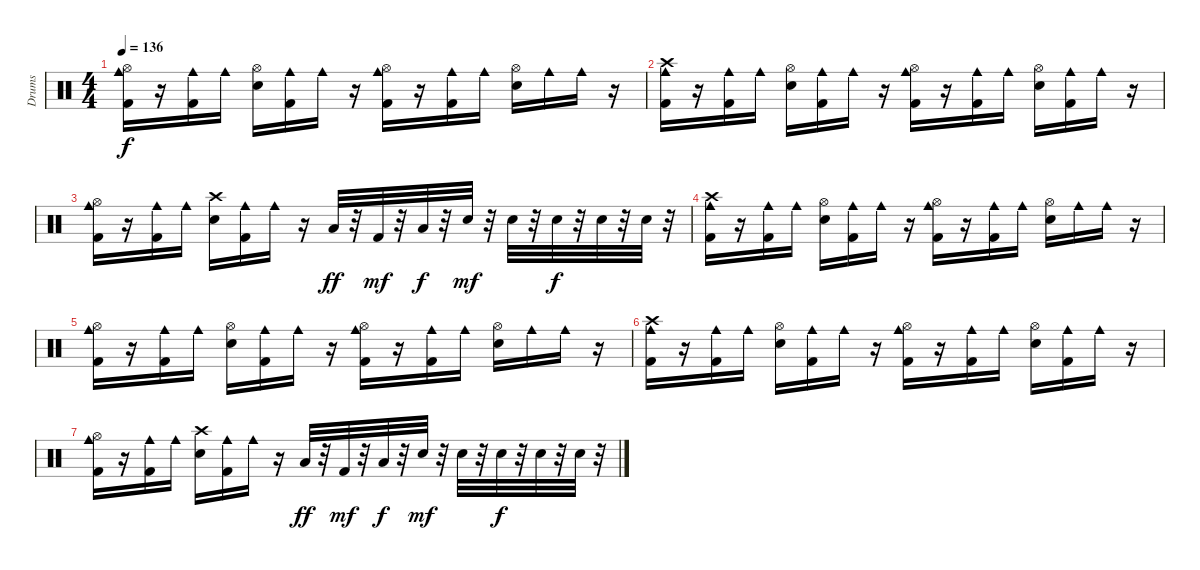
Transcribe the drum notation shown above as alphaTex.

\track ("Drums" "Drums") {instrument percussion}
\staff {score}
\articulation defaults
\ts (4 4)
\tempo 136
\clef neutral
\ks c
("Kick (hit) 2" "Cowbell medium (hit)" "Hi-Hat (open)").16{dy f} r.16 ("Kick (hit) 2" "Cowbell medium (hit)").16 "Cowbell medium (hit)".16 ("Metronome (bell)" "Hi-Hat (open)").16 ("Cowbell medium (hit)" "Kick (hit) 2").16 "Cowbell medium (hit)".16 r.16 ("Kick (hit) 2" "Cowbell medium (hit)" "Hi-Hat (open)").16 r.16 ("Kick (hit) 2" "Cowbell medium (hit)").16 "Cowbell medium (hit)".16 ("Metronome (bell)" "Hi-Hat (open)").16 "Cowbell medium (hit)".16 "Cowbell medium (hit)".16 r.16 |
("Cowbell medium (hit)" "Kick (hit) 2" "Crash high (hit)").16 r.16 ("Cowbell medium (hit)" "Kick (hit) 2").16 "Cowbell medium (hit)".16 ("Metronome (bell)" "Hi-Hat (open)").16 ("Cowbell medium (hit)" "Kick (hit) 2").16 "Cowbell medium (hit)".16 r.16 ("Kick (hit) 2" "Cowbell medium (hit)" "Hi-Hat (open)").16 r.16 ("Cowbell medium (hit)" "Kick (hit) 2").16 "Cowbell medium (hit)".16 ("Metronome (bell)" "Hi-Hat (open)").16 ("Cowbell medium (hit)" "Kick (hit) 2").16 "Cowbell medium (hit)".16 r.16 |
("Kick (hit) 2" "Cowbell medium (hit)" "Hi-Hat (open)").16 r.16 ("Kick (hit) 2" "Cowbell medium (hit)").16{volume 12} "Cowbell medium (hit)".16 ("Metronome (bell)" "Crash high (hit)").16{volume 12} ("Cowbell medium (hit)" "Kick (hit) 2").16 "Cowbell medium (hit)".16{volume 11} r.16 "Low Tom (hit)".32{dy ff volume 11} r.32 "Kick (hit) 2".32{dy mf volume 10} r.32 "Low Floor Tom (hit)".32{dy f} r.32 "Metronome (bell)".32{dy mf volume 10} r.32 "Metronome (bell)".32{volume 10} r.32 "Metronome (bell)".32{dy f} r.32 "Metronome (bell)".32{volume 9} r.32 "Metronome (bell)".32 r.32 |
("Cowbell medium (hit)" "Kick (hit) 2" "Crash high (hit)").16{volume 9} r.16 ("Cowbell medium (hit)" "Kick (hit) 2").16{volume 8} "Cowbell medium (hit)".16{volume 8} ("Metronome (bell)" "Hi-Hat (open)").16 ("Cowbell medium (hit)" "Kick (hit) 2").16{volume 7} "Cowbell medium (hit)".16{volume 7} r.16 ("Kick (hit) 2" "Cowbell medium (hit)" "Hi-Hat (open)").16{volume 6} r.16 ("Cowbell medium (hit)" "Kick (hit) 2").16{volume 6} "Cowbell medium (hit)".16{volume 6} ("Metronome (bell)" "Hi-Hat (open)").16 "Cowbell medium (hit)".16{volume 5} "Cowbell medium (hit)".16 r.16 |
("Kick (hit) 2" "Cowbell medium (hit)" "Hi-Hat (open)").16{volume 4} r.16 ("Kick (hit) 2" "Cowbell medium (hit)").16{volume 4} "Cowbell medium (hit)".16 ("Metronome (bell)" "Hi-Hat (open)").16{volume 3} ("Cowbell medium (hit)" "Kick (hit) 2").16{volume 3} "Cowbell medium (hit)".16 r.16 ("Kick (hit) 2" "Cowbell medium (hit)" "Hi-Hat (open)").16{volume 2} r.16 ("Kick (hit) 2" "Cowbell medium (hit)").16{volume 2} "Cowbell medium (hit)".16 ("Metronome (bell)" "Hi-Hat (open)").16{volume 1} "Cowbell medium (hit)".16 "Cowbell medium (hit)".16{volume 1} r.16 |
("Cowbell medium (hit)" "Kick (hit) 2" "Crash high (hit)").16{volume 0} r.16 ("Cowbell medium (hit)" "Kick (hit) 2").16{volume 0} "Cowbell medium (hit)".16 ("Metronome (bell)" "Hi-Hat (open)").16 ("Cowbell medium (hit)" "Kick (hit) 2").16 "Cowbell medium (hit)".16 r.16 ("Kick (hit) 2" "Cowbell medium (hit)" "Hi-Hat (open)").16 r.16 ("Cowbell medium (hit)" "Kick (hit) 2").16 "Cowbell medium (hit)".16 ("Metronome (bell)" "Hi-Hat (open)").16 ("Cowbell medium (hit)" "Kick (hit) 2").16 "Cowbell medium (hit)".16 r.16 |
("Kick (hit) 2" "Cowbell medium (hit)" "Hi-Hat (open)").16 r.16 ("Kick (hit) 2" "Cowbell medium (hit)").16 "Cowbell medium (hit)".16 ("Metronome (bell)" "Crash high (hit)").16 ("Cowbell medium (hit)" "Kick (hit) 2").16 "Cowbell medium (hit)".16 r.16 "Low Tom (hit)".32{dy ff} r.32 "Kick (hit) 2".32{dy mf} r.32 "Low Floor Tom (hit)".32{dy f} r.32 "Metronome (bell)".32{dy mf} r.32 "Metronome (bell)".32 r.32 "Metronome (bell)".32{dy f} r.32 "Metronome (bell)".32 r.32 "Metronome (bell)".32 r.32
